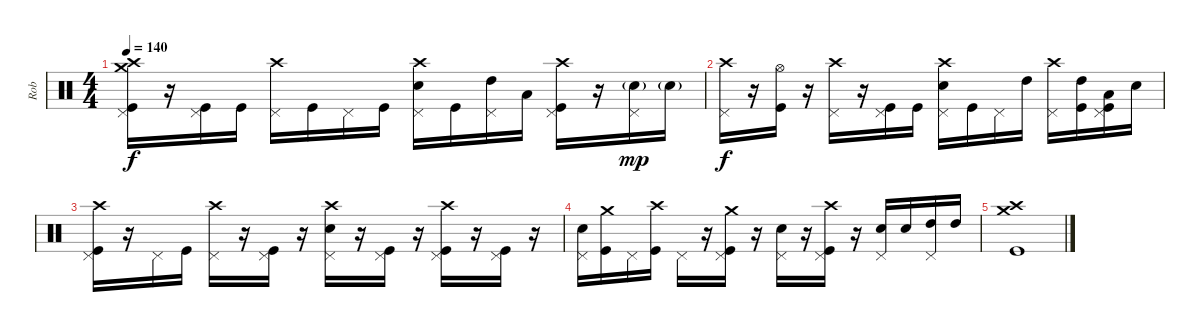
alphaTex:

\track ("Rob" "Rob") {instrument percussion}
\staff {score}
\articulation defaults
\ts (4 4)
\tempo 140
\clef neutral
\ks c
("Crash medium (hit)" "Crash high (hit)" "Pedal Hi-Hat (hit)" "Kick (hit)").16{dy f} r.16 ("Pedal Hi-Hat (hit)" "Kick (hit)").16 "Kick (hit)".16 ("Crash high (hit)" "Pedal Hi-Hat (hit)").16 "Kick (hit)".16 "Pedal Hi-Hat (hit)".16 "Kick (hit)".16 ("Electric Snare (hit)" "Crash high (hit)" "Pedal Hi-Hat (hit)").16 "Kick (hit)".16 ("High Tom (hit)" "Pedal Hi-Hat (hit)").16 "Low Tom (hit)".16 ("Crash high (hit)" "Pedal Hi-Hat (hit)" "Kick (hit)").16 r.16 ("Electric Snare (hit)"{g} "Pedal Hi-Hat (hit)").16{dy mp} "Electric Snare (hit)"{g}.16 |
("Crash high (hit)" "Pedal Hi-Hat (hit)").16{dy f} r.16 ("Hi-Hat (open)" "Kick (hit)").16 r.16 ("Crash high (hit)" "Pedal Hi-Hat (hit)").16 r.16 ("Pedal Hi-Hat (hit)" "Kick (hit)").16 "Kick (hit)".16 ("Electric Snare (hit)" "Crash high (hit)" "Pedal Hi-Hat (hit)").16 "Kick (hit)".16 "Pedal Hi-Hat (hit)".16 "High Tom (hit)".16 ("Crash high (hit)" "Pedal Hi-Hat (hit)").16 ("High Tom (hit)" "Kick (hit)").16 ("Low Tom (hit)" "Pedal Hi-Hat (hit)" "Kick (hit)").16 "Electric Snare (hit)".16 |
("Crash high (hit)" "Pedal Hi-Hat (hit)" "Kick (hit)").16 r.16 "Pedal Hi-Hat (hit)".16 "Kick (hit)".16 ("Crash high (hit)" "Pedal Hi-Hat (hit)").16 r.16 ("Pedal Hi-Hat (hit)" "Kick (hit)").16 r.16 ("Electric Snare (hit)" "Crash high (hit)" "Pedal Hi-Hat (hit)").16 r.16 ("Pedal Hi-Hat (hit)" "Kick (hit)").16 r.16 ("Crash high (hit)" "Pedal Hi-Hat (hit)" "Kick (hit)").16 r.16 ("Pedal Hi-Hat (hit)" "Kick (hit)").16 r.16 |
("Electric Snare (hit)" "Pedal Hi-Hat (hit)").16 ("Crash medium (hit)" "Kick (hit)").16 "Pedal Hi-Hat (hit)".16 ("Crash high (hit)" "Kick (hit)").16 "Pedal Hi-Hat (hit)".16 r.16 ("Crash medium (hit)" "Pedal Hi-Hat (hit)" "Kick (hit)").16 r.16 ("Electric Snare (hit)" "Pedal Hi-Hat (hit)").16 r.16 ("Crash high (hit)" "Pedal Hi-Hat (hit)" "Kick (hit)").16 r.16 ("Electric Snare (hit)" "Pedal Hi-Hat (hit)").16 "Electric Snare (hit)".16 ("High Tom (hit)" "Pedal Hi-Hat (hit)").16 "High Tom (hit)".16 |
("Crash high (hit)" "Crash medium (hit)" "Kick (hit)").1
